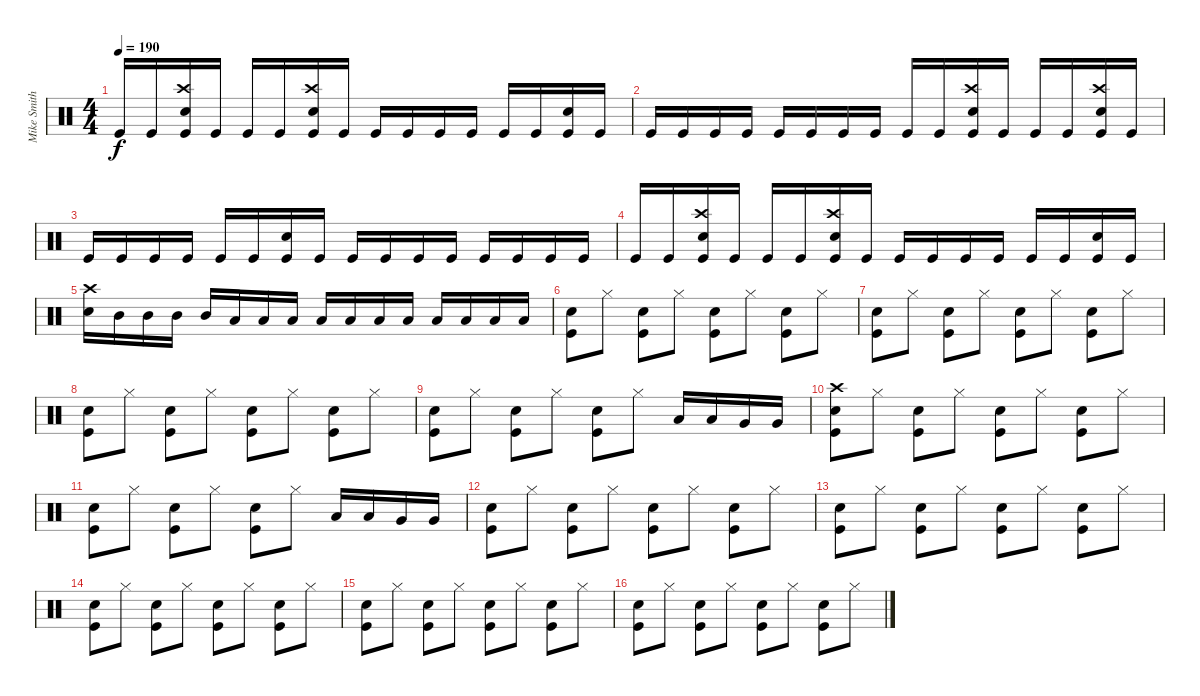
\track ("Mike Smith" "Mike Smith") {instrument percussion}
\staff
\articulation defaults
\ts (4 4)
\tempo 190
\clef neutral
\ks c "Kick (hit)".16{dy f} "Kick (hit)".16
("Crash high (hit)" "Snare (hit) 2" "Kick (hit)").16 "Kick (hit)".16 "Kick (hit)".16 "Kick (hit)".16 ("Crash high (hit)" "Snare (hit) 2" "Kick (hit)").16 "Kick (hit)".16 "Kick (hit)".16 "Kick (hit)".16 "Kick (hit)".16 "Kick (hit)".16 "Kick (hit)".16 "Kick (hit)".16 ("Snare (hit) 2" "Kick (hit)").16 "Kick (hit)".16 |
"Kick (hit)".16 "Kick (hit)".16 "Kick (hit)".16 "Kick (hit)".16 "Kick (hit)".16 "Kick (hit)".16 "Kick (hit)".16 "Kick (hit)".16 "Kick (hit)".16 "Kick (hit)".16 ("Crash high (hit)" "Snare (hit) 2" "Kick (hit)").16 "Kick (hit)".16 "Kick (hit)".16 "Kick (hit)".16 ("Crash high (hit)" "Snare (hit) 2" "Kick (hit)").16 "Kick (hit)".16 |
"Kick (hit)".16 "Kick (hit)".16 "Kick (hit)".16 "Kick (hit)".16 "Kick (hit)".16 "Kick (hit)".16 ("Snare (hit) 2" "Kick (hit)").16 "Kick (hit)".16 "Kick (hit)".16 "Kick (hit)".16 "Kick (hit)".16 "Kick (hit)".16 "Kick (hit)".16 "Kick (hit)".16 "Kick (hit)".16 "Kick (hit)".16 |
"Kick (hit)".16 "Kick (hit)".16 ("Crash high (hit)" "Snare (hit) 2" "Kick (hit)").16 "Kick (hit)".16 "Kick (hit)".16 "Kick (hit)".16 ("Crash high (hit)" "Snare (hit) 2" "Kick (hit)").16 "Kick (hit)".16 "Kick (hit)".16 "Kick (hit)".16 "Kick (hit)".16 "Kick (hit)".16 "Kick (hit)".16 "Kick (hit)".16 ("Snare (hit) 2" "Kick (hit)").16 "Kick (hit)".16 |
("Crash high (hit)" "Snare (hit) 2").16 "Mid Tom (hit)".16 "Mid Tom (hit)".16 "Mid Tom (hit)".16 "Mid Tom (hit)".16 "Low Tom (hit)".16 "Low Tom (hit)".16 "Low Tom (hit)".16 "Low Tom (hit)".16 "Low Tom (hit)".16 "Low Tom (hit)".16 "Low Tom (hit)".16 "Low Floor Tom (hit)".16 "Low Floor Tom (hit)".16 "Low Floor Tom (hit)".16 "Low Floor Tom (hit)".16 |
("Snare (hit) 2" "Kick (hit)").8 "Hi-Hat (closed)".8 ("Snare (hit) 2" "Kick (hit)").8 "Hi-Hat (closed)".8 ("Snare (hit) 2" "Kick (hit)").8 "Hi-Hat (closed)".8 ("Snare (hit) 2" "Kick (hit)").8 "Hi-Hat (closed)".8 |
("Snare (hit) 2" "Kick (hit)").8 "Hi-Hat (closed)".8 ("Snare (hit) 2" "Kick (hit)").8 "Hi-Hat (closed)".8 ("Snare (hit) 2" "Kick (hit)").8 "Hi-Hat (closed)".8 ("Snare (hit) 2" "Kick (hit)").8 "Hi-Hat (closed)".8 |
("Snare (hit) 2" "Kick (hit)").8 "Hi-Hat (closed)".8 ("Snare (hit) 2" "Kick (hit)").8 "Hi-Hat (closed)".8 ("Snare (hit) 2" "Kick (hit)").8 "Hi-Hat (closed)".8 ("Snare (hit) 2" "Kick (hit)").8 "Hi-Hat (closed)".8 |
("Snare (hit) 2" "Kick (hit)").8 "Hi-Hat (closed)".8 ("Snare (hit) 2" "Kick (hit)").8 "Hi-Hat (closed)".8 ("Snare (hit) 2" "Kick (hit)").8 "Hi-Hat (closed)".8 "Low Tom (hit)".16 "Low Tom (hit)".16 "Very Low Tom (hit)".16 "Very Low Tom (hit)".16 |
("Crash high (hit)" "Snare (hit) 2" "Kick (hit)").8 "Hi-Hat (closed)".8 ("Snare (hit) 2" "Kick (hit)").8 "Hi-Hat (closed)".8 ("Snare (hit) 2" "Kick (hit)").8 "Hi-Hat (closed)".8 ("Snare (hit) 2" "Kick (hit)").8 "Hi-Hat (closed)".8 |
("Snare (hit) 2" "Kick (hit)").8 "Hi-Hat (closed)".8 ("Snare (hit) 2" "Kick (hit)").8 "Hi-Hat (closed)".8 ("Snare (hit) 2" "Kick (hit)").8 "Hi-Hat (closed)".8 "Low Tom (hit)".16 "Low Tom (hit)".16 "Very Low Tom (hit)".16 "Very Low Tom (hit)".16 |
("Snare (hit) 2" "Kick (hit)").8 "Hi-Hat (closed)".8 ("Snare (hit) 2" "Kick (hit)").8 "Hi-Hat (closed)".8 ("Snare (hit) 2" "Kick (hit)").8 "Hi-Hat (closed)".8 ("Snare (hit) 2" "Kick (hit)").8 "Hi-Hat (closed)".8 |
("Snare (hit) 2" "Kick (hit)").8 "Hi-Hat (closed)".8 ("Snare (hit) 2" "Kick (hit)").8 "Hi-Hat (closed)".8 ("Snare (hit) 2" "Kick (hit)").8 "Hi-Hat (closed)".8 ("Snare (hit) 2" "Kick (hit)").8 "Hi-Hat (closed)".8 |
("Snare (hit) 2" "Kick (hit)").8 "Hi-Hat (closed)".8 ("Snare (hit) 2" "Kick (hit)").8 "Hi-Hat (closed)".8 ("Snare (hit) 2" "Kick (hit)").8 "Hi-Hat (closed)".8 ("Snare (hit) 2" "Kick (hit)").8 "Hi-Hat (closed)".8 |
("Snare (hit) 2" "Kick (hit)").8 "Hi-Hat (closed)".8 ("Snare (hit) 2" "Kick (hit)").8 "Hi-Hat (closed)".8 ("Snare (hit) 2" "Kick (hit)").8 "Hi-Hat (closed)".8 ("Snare (hit) 2" "Kick (hit)").8 "Hi-Hat (closed)".8 |
("Snare (hit) 2" "Kick (hit)").8 "Hi-Hat (closed)".8 ("Snare (hit) 2" "Kick (hit)").8 "Hi-Hat (closed)".8 ("Snare (hit) 2" "Kick (hit)").8 "Hi-Hat (closed)".8 ("Snare (hit) 2" "Kick (hit)").8 "Hi-Hat (closed)".8
